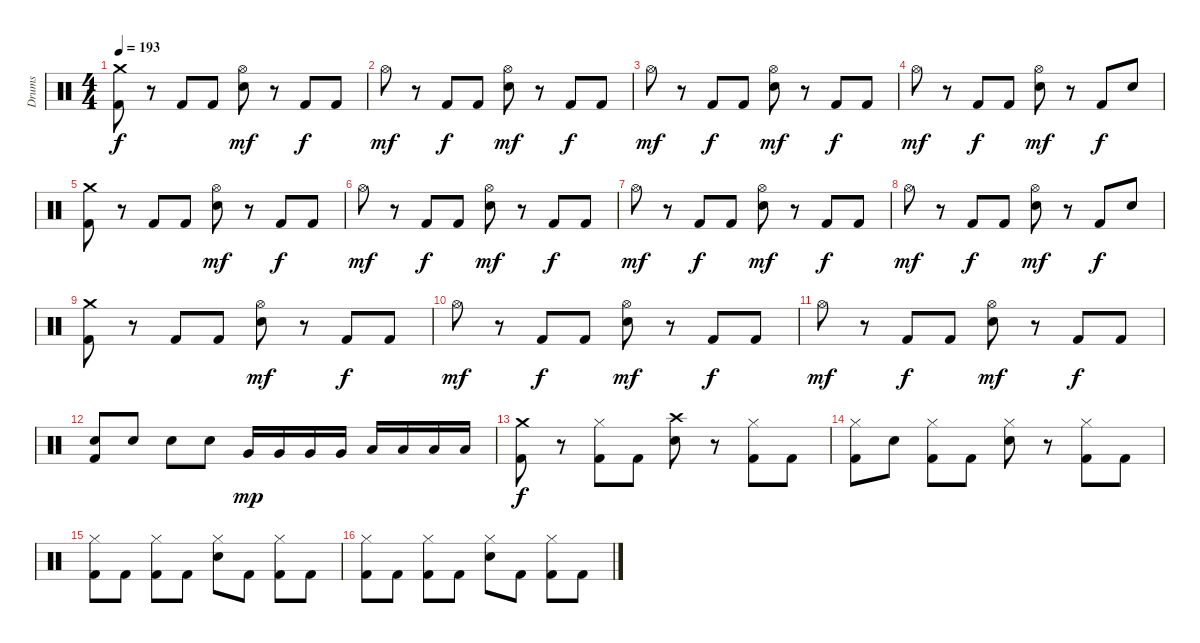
\track ("Drums" "Drums") {instrument percussion}
\staff {score}
\articulation defaults
\ts (4 4)
\tempo 193
\clef neutral
\ks c
("Crash medium (hit)" "Kick (hit) 2").8{dy f} r.8 "Kick (hit) 2".8 "Kick (hit) 2".8 ("Hi-Hat (open)" "Snare (hit) 2").8{dy mf} r.8 "Kick (hit) 2".8{dy f} "Kick (hit) 2".8 |
"Hi-Hat (open)".8{dy mf} r.8 "Kick (hit) 2".8{dy f} "Kick (hit) 2".8 ("Hi-Hat (open)" "Snare (hit) 2").8{dy mf} r.8 "Kick (hit) 2".8{dy f} "Kick (hit) 2".8 |
"Hi-Hat (open)".8{dy mf} r.8 "Kick (hit) 2".8{dy f} "Kick (hit) 2".8 ("Hi-Hat (open)" "Snare (hit) 2").8{dy mf} r.8 "Kick (hit) 2".8{dy f} "Kick (hit) 2".8 |
"Hi-Hat (open)".8{dy mf} r.8 "Kick (hit) 2".8{dy f} "Kick (hit) 2".8 ("Hi-Hat (open)" "Snare (hit) 2").8{dy mf} r.8 "Kick (hit) 2".8{dy f} "Snare (hit) 2".8 |
("Crash medium (hit)" "Kick (hit) 2").8 r.8 "Kick (hit) 2".8 "Kick (hit) 2".8 ("Hi-Hat (open)" "Snare (hit) 2").8{dy mf} r.8 "Kick (hit) 2".8{dy f} "Kick (hit) 2".8 |
"Hi-Hat (open)".8{dy mf} r.8 "Kick (hit) 2".8{dy f} "Kick (hit) 2".8 ("Hi-Hat (open)" "Snare (hit) 2").8{dy mf} r.8 "Kick (hit) 2".8{dy f} "Kick (hit) 2".8 |
"Hi-Hat (open)".8{dy mf} r.8 "Kick (hit) 2".8{dy f} "Kick (hit) 2".8 ("Hi-Hat (open)" "Snare (hit) 2").8{dy mf} r.8 "Kick (hit) 2".8{dy f} "Kick (hit) 2".8 |
"Hi-Hat (open)".8{dy mf} r.8 "Kick (hit) 2".8{dy f} "Kick (hit) 2".8 ("Hi-Hat (open)" "Snare (hit) 2").8{dy mf} r.8 "Kick (hit) 2".8{dy f} "Snare (hit) 2".8 |
("Crash medium (hit)" "Kick (hit) 2").8 r.8 "Kick (hit) 2".8 "Kick (hit) 2".8 ("Hi-Hat (open)" "Snare (hit) 2").8{dy mf} r.8 "Kick (hit) 2".8{dy f} "Kick (hit) 2".8 |
"Hi-Hat (open)".8{dy mf} r.8 "Kick (hit) 2".8{dy f} "Kick (hit) 2".8 ("Hi-Hat (open)" "Snare (hit) 2").8{dy mf} r.8 "Kick (hit) 2".8{dy f} "Kick (hit) 2".8 |
"Hi-Hat (open)".8{dy mf} r.8 "Kick (hit) 2".8{dy f} "Kick (hit) 2".8 ("Hi-Hat (open)" "Snare (hit) 2").8{dy mf} r.8 "Kick (hit) 2".8{dy f} "Kick (hit) 2".8 |
("Snare (hit) 2" "Kick (hit) 2").8 "Snare (hit) 2".8 "Snare (hit) 2".8 "Snare (hit) 2".8 "Very Low Tom (hit)".16{dy mp} "Very Low Tom (hit)".16 "Very Low Tom (hit)".16 "Very Low Tom (hit)".16 "Low Floor Tom (hit)".16 "Low Floor Tom (hit)".16 "Low Floor Tom (hit)".16 "Low Floor Tom (hit)".16 |
("Crash medium (hit)" "Kick (hit) 2").8{dy f} r.8 ("Hi-Hat (closed)" "Kick (hit) 2").8 "Kick (hit) 2".8 ("Crash high (hit)" "Snare (hit) 2").8 r.8 ("Hi-Hat (closed)" "Kick (hit) 2").8 "Kick (hit) 2".8 |
("Hi-Hat (closed)" "Kick (hit) 2").8 "Snare (hit) 2".8 ("Hi-Hat (closed)" "Kick (hit) 2").8 "Kick (hit) 2".8 ("Hi-Hat (closed)" "Snare (hit) 2").8 r.8 ("Hi-Hat (closed)" "Kick (hit) 2").8 "Kick (hit) 2".8 |
("Hi-Hat (closed)" "Kick (hit) 2").8 "Kick (hit) 2".8 ("Hi-Hat (closed)" "Kick (hit) 2").8 "Kick (hit) 2".8 ("Hi-Hat (closed)" "Snare (hit) 2").8 "Kick (hit) 2".8 ("Hi-Hat (closed)" "Kick (hit) 2").8 "Kick (hit) 2".8 |
("Hi-Hat (closed)" "Kick (hit) 2").8 "Kick (hit) 2".8 ("Hi-Hat (closed)" "Kick (hit) 2").8 "Kick (hit) 2".8 ("Hi-Hat (closed)" "Snare (hit) 2").8 "Kick (hit) 2".8 ("Hi-Hat (closed)" "Kick (hit) 2").8 "Kick (hit) 2".8
